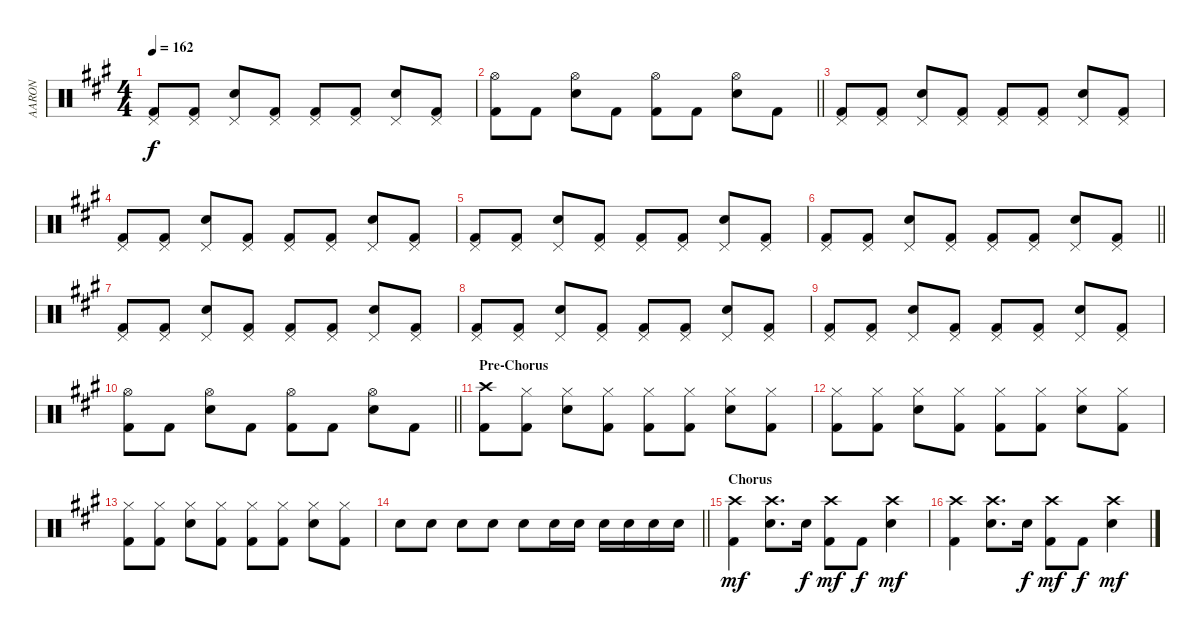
\track ("AARON" "AARON") {instrument percussion}
\staff {score}
\articulation defaults
\ts (4 4)
\tempo 162
\clef neutral
\ks a
("Pedal Hi-Hat (hit)" "Kick (hit) 2").8{dy f} ("Pedal Hi-Hat (hit)" "Kick (hit) 2").8 ("Pedal Hi-Hat (hit)" "Electric Snare (hit)").8 ("Pedal Hi-Hat (hit)" "Kick (hit) 2").8 ("Pedal Hi-Hat (hit)" "Kick (hit) 2").8 ("Pedal Hi-Hat (hit)" "Kick (hit) 2").8 ("Pedal Hi-Hat (hit)" "Electric Snare (hit)").8 ("Pedal Hi-Hat (hit)" "Kick (hit) 2").8 |
\barLineRight lightlight
("Hi-Hat (open)" "Kick (hit) 2").8 "Kick (hit) 2".8 ("Hi-Hat (open)" "Electric Snare (hit)").8 "Kick (hit) 2".8 ("Hi-Hat (open)" "Kick (hit) 2").8 "Kick (hit) 2".8 ("Hi-Hat (open)" "Electric Snare (hit)").8 "Kick (hit) 2".8 |
("Pedal Hi-Hat (hit)" "Kick (hit) 2").8 ("Pedal Hi-Hat (hit)" "Kick (hit) 2").8 ("Pedal Hi-Hat (hit)" "Electric Snare (hit)").8 ("Pedal Hi-Hat (hit)" "Kick (hit) 2").8 ("Pedal Hi-Hat (hit)" "Kick (hit) 2").8 ("Pedal Hi-Hat (hit)" "Kick (hit) 2").8 ("Pedal Hi-Hat (hit)" "Electric Snare (hit)").8 ("Pedal Hi-Hat (hit)" "Kick (hit) 2").8 |
("Pedal Hi-Hat (hit)" "Kick (hit) 2").8 ("Pedal Hi-Hat (hit)" "Kick (hit) 2").8 ("Pedal Hi-Hat (hit)" "Electric Snare (hit)").8 ("Pedal Hi-Hat (hit)" "Kick (hit) 2").8 ("Pedal Hi-Hat (hit)" "Kick (hit) 2").8 ("Pedal Hi-Hat (hit)" "Kick (hit) 2").8 ("Pedal Hi-Hat (hit)" "Electric Snare (hit)").8 ("Pedal Hi-Hat (hit)" "Kick (hit) 2").8 |
("Pedal Hi-Hat (hit)" "Kick (hit) 2").8 ("Pedal Hi-Hat (hit)" "Kick (hit) 2").8 ("Pedal Hi-Hat (hit)" "Electric Snare (hit)").8 ("Pedal Hi-Hat (hit)" "Kick (hit) 2").8 ("Pedal Hi-Hat (hit)" "Kick (hit) 2").8 ("Pedal Hi-Hat (hit)" "Kick (hit) 2").8 ("Pedal Hi-Hat (hit)" "Electric Snare (hit)").8 ("Pedal Hi-Hat (hit)" "Kick (hit) 2").8 |
\barLineRight lightlight
("Pedal Hi-Hat (hit)" "Kick (hit) 2").8 ("Pedal Hi-Hat (hit)" "Kick (hit) 2").8 ("Pedal Hi-Hat (hit)" "Electric Snare (hit)").8 ("Pedal Hi-Hat (hit)" "Kick (hit) 2").8 ("Pedal Hi-Hat (hit)" "Kick (hit) 2").8 ("Pedal Hi-Hat (hit)" "Kick (hit) 2").8 ("Pedal Hi-Hat (hit)" "Electric Snare (hit)").8 ("Pedal Hi-Hat (hit)" "Kick (hit) 2").8 |
\section ("" "")
("Pedal Hi-Hat (hit)" "Kick (hit) 2").8 ("Pedal Hi-Hat (hit)" "Kick (hit) 2").8 ("Pedal Hi-Hat (hit)" "Electric Snare (hit)").8 ("Pedal Hi-Hat (hit)" "Kick (hit) 2").8 ("Pedal Hi-Hat (hit)" "Kick (hit) 2").8 ("Pedal Hi-Hat (hit)" "Kick (hit) 2").8 ("Pedal Hi-Hat (hit)" "Electric Snare (hit)").8 ("Pedal Hi-Hat (hit)" "Kick (hit) 2").8 |
("Pedal Hi-Hat (hit)" "Kick (hit) 2").8 ("Pedal Hi-Hat (hit)" "Kick (hit) 2").8 ("Pedal Hi-Hat (hit)" "Electric Snare (hit)").8 ("Pedal Hi-Hat (hit)" "Kick (hit) 2").8 ("Pedal Hi-Hat (hit)" "Kick (hit) 2").8 ("Pedal Hi-Hat (hit)" "Kick (hit) 2").8 ("Pedal Hi-Hat (hit)" "Electric Snare (hit)").8 ("Pedal Hi-Hat (hit)" "Kick (hit) 2").8 |
("Pedal Hi-Hat (hit)" "Kick (hit) 2").8 ("Pedal Hi-Hat (hit)" "Kick (hit) 2").8 ("Pedal Hi-Hat (hit)" "Electric Snare (hit)").8 ("Pedal Hi-Hat (hit)" "Kick (hit) 2").8 ("Pedal Hi-Hat (hit)" "Kick (hit) 2").8 ("Pedal Hi-Hat (hit)" "Kick (hit) 2").8 ("Pedal Hi-Hat (hit)" "Electric Snare (hit)").8 ("Pedal Hi-Hat (hit)" "Kick (hit) 2").8 |
\barLineRight lightlight
("Hi-Hat (open)" "Kick (hit) 2").8 "Kick (hit) 2".8 ("Hi-Hat (open)" "Electric Snare (hit)").8 "Kick (hit) 2".8 ("Hi-Hat (open)" "Kick (hit) 2").8 "Kick (hit) 2".8 ("Hi-Hat (open)" "Electric Snare (hit)").8 "Kick (hit) 2".8 |
\section ("" "Pre-Chorus")
("Crash high (hit)" "Kick (hit) 2").8 ("Hi-Hat (closed)" "Kick (hit) 2").8 ("Hi-Hat (closed)" "Electric Snare (hit)").8 ("Hi-Hat (closed)" "Kick (hit) 2").8 ("Hi-Hat (closed)" "Kick (hit) 2").8 ("Hi-Hat (closed)" "Kick (hit) 2").8 ("Hi-Hat (closed)" "Electric Snare (hit)").8 ("Hi-Hat (closed)" "Kick (hit) 2").8 |
("Hi-Hat (closed)" "Kick (hit) 2").8 ("Hi-Hat (closed)" "Kick (hit) 2").8 ("Hi-Hat (closed)" "Electric Snare (hit)").8 ("Hi-Hat (closed)" "Kick (hit) 2").8 ("Hi-Hat (closed)" "Kick (hit) 2").8 ("Hi-Hat (closed)" "Kick (hit) 2").8 ("Hi-Hat (closed)" "Electric Snare (hit)").8 ("Hi-Hat (closed)" "Kick (hit) 2").8 |
("Hi-Hat (closed)" "Kick (hit) 2").8 ("Hi-Hat (closed)" "Kick (hit) 2").8 ("Hi-Hat (closed)" "Electric Snare (hit)").8 ("Hi-Hat (closed)" "Kick (hit) 2").8 ("Hi-Hat (closed)" "Kick (hit) 2").8 ("Hi-Hat (closed)" "Kick (hit) 2").8 ("Hi-Hat (closed)" "Electric Snare (hit)").8 ("Hi-Hat (closed)" "Kick (hit) 2").8 |
\barLineRight lightlight "Electric Snare (hit)".8 "Electric Snare (hit)".8 "Electric Snare (hit)".8 "Electric Snare (hit)".8 "Electric Snare (hit)".8 "Electric Snare (hit)".16 "Electric Snare (hit)".16 "Electric Snare (hit)".16 "Electric Snare (hit)".16 "Electric Snare (hit)".16 "Electric Snare (hit)".16
|
\section ("" "Chorus")
("Crash high (hit)" "Kick (hit) 2").4{dy mf} ("Crash high (hit)" "Electric Snare (hit)").8{d} "Electric Snare (hit)".16{dy f} ("Crash high (hit)" "Kick (hit) 2").8{dy mf} "Kick (hit) 2".8{dy f} ("Crash high (hit)" "Electric Snare (hit)").4{dy mf} |
("Crash high (hit)" "Kick (hit) 2").4 ("Crash high (hit)" "Electric Snare (hit)").8{d} "Electric Snare (hit)".16{dy f} ("Crash high (hit)" "Kick (hit) 2").8{dy mf} "Kick (hit) 2".8{dy f} ("Crash high (hit)" "Electric Snare (hit)").4{dy mf}
